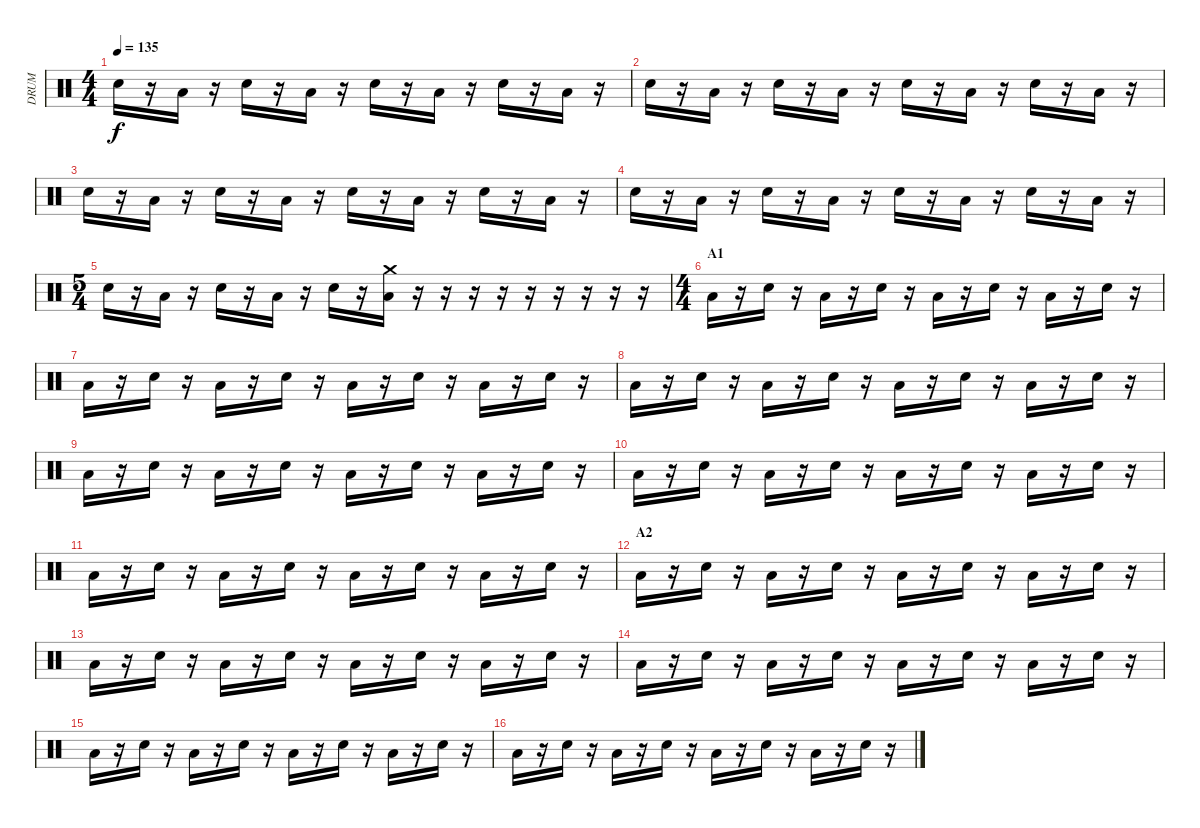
\track ("DRUM" "DRUM") {instrument percussion}
\staff {score}
\articulation defaults
\ts (4 4)
\tempo 135
\clef neutral
\ks c "Electric Snare (hit)".16{dy f}
r.16 "Low Floor Tom (hit)".16 r.16 "Electric Snare (hit)".16 r.16 "Low Floor Tom (hit)".16 r.16 "Electric Snare (hit)".16 r.16 "Low Floor Tom (hit)".16 r.16 "Electric Snare (hit)".16 r.16 "Low Floor Tom (hit)".16 r.16 |
"Electric Snare (hit)".16 r.16 "Low Floor Tom (hit)".16 r.16 "Electric Snare (hit)".16 r.16 "Low Floor Tom (hit)".16 r.16 "Electric Snare (hit)".16 r.16 "Low Floor Tom (hit)".16 r.16 "Electric Snare (hit)".16 r.16 "Low Floor Tom (hit)".16 r.16 |
"Electric Snare (hit)".16 r.16 "Low Floor Tom (hit)".16 r.16 "Electric Snare (hit)".16 r.16 "Low Floor Tom (hit)".16 r.16 "Electric Snare (hit)".16 r.16 "Low Floor Tom (hit)".16 r.16 "Electric Snare (hit)".16 r.16 "Low Floor Tom (hit)".16 r.16 |
"Electric Snare (hit)".16 r.16 "Low Floor Tom (hit)".16 r.16 "Electric Snare (hit)".16 r.16 "Low Floor Tom (hit)".16 r.16 "Electric Snare (hit)".16 r.16 "Low Floor Tom (hit)".16 r.16 "Electric Snare (hit)".16 r.16 "Low Floor Tom (hit)".16 r.16 |
\ts (5 4)
"Electric Snare (hit)".16 r.16 "Low Floor Tom (hit)".16 r.16 "Electric Snare (hit)".16 r.16 "Low Floor Tom (hit)".16 r.16 "Electric Snare (hit)".16 r.16 ("Low Floor Tom (hit)" "Crash medium (hit)").16 r.16 r.16 r.16 r.16 r.16 r.16 r.16 r.16 r.16 |
\ts (4 4)
\section ("" "A1")
"Low Floor Tom (hit)".16 r.16 "Electric Snare (hit)".16 r.16 "Low Floor Tom (hit)".16 r.16 "Electric Snare (hit)".16 r.16 "Low Floor Tom (hit)".16 r.16 "Electric Snare (hit)".16 r.16 "Low Floor Tom (hit)".16 r.16 "Electric Snare (hit)".16 r.16 |
"Low Floor Tom (hit)".16 r.16 "Electric Snare (hit)".16 r.16 "Low Floor Tom (hit)".16 r.16 "Electric Snare (hit)".16 r.16 "Low Floor Tom (hit)".16 r.16 "Electric Snare (hit)".16 r.16 "Low Floor Tom (hit)".16 r.16 "Electric Snare (hit)".16 r.16 |
"Low Floor Tom (hit)".16 r.16 "Electric Snare (hit)".16 r.16 "Low Floor Tom (hit)".16 r.16 "Electric Snare (hit)".16 r.16 "Low Floor Tom (hit)".16 r.16 "Electric Snare (hit)".16 r.16 "Low Floor Tom (hit)".16 r.16 "Electric Snare (hit)".16 r.16 |
"Low Floor Tom (hit)".16 r.16 "Electric Snare (hit)".16 r.16 "Low Floor Tom (hit)".16 r.16 "Electric Snare (hit)".16 r.16 "Low Floor Tom (hit)".16 r.16 "Electric Snare (hit)".16 r.16 "Low Floor Tom (hit)".16 r.16 "Electric Snare (hit)".16 r.16 |
"Low Floor Tom (hit)".16 r.16 "Electric Snare (hit)".16 r.16 "Low Floor Tom (hit)".16 r.16 "Electric Snare (hit)".16 r.16 "Low Floor Tom (hit)".16 r.16 "Electric Snare (hit)".16 r.16 "Low Floor Tom (hit)".16 r.16 "Electric Snare (hit)".16 r.16 |
"Low Floor Tom (hit)".16 r.16 "Electric Snare (hit)".16 r.16 "Low Floor Tom (hit)".16 r.16 "Electric Snare (hit)".16 r.16 "Low Floor Tom (hit)".16 r.16 "Electric Snare (hit)".16 r.16 "Low Floor Tom (hit)".16 r.16 "Electric Snare (hit)".16 r.16 |
\section ("" "A2")
"Low Floor Tom (hit)".16 r.16 "Electric Snare (hit)".16 r.16 "Low Floor Tom (hit)".16 r.16 "Electric Snare (hit)".16 r.16 "Low Floor Tom (hit)".16 r.16 "Electric Snare (hit)".16 r.16 "Low Floor Tom (hit)".16 r.16 "Electric Snare (hit)".16 r.16 |
"Low Floor Tom (hit)".16 r.16 "Electric Snare (hit)".16 r.16 "Low Floor Tom (hit)".16 r.16 "Electric Snare (hit)".16 r.16 "Low Floor Tom (hit)".16 r.16 "Electric Snare (hit)".16 r.16 "Low Floor Tom (hit)".16 r.16 "Electric Snare (hit)".16 r.16 |
"Low Floor Tom (hit)".16 r.16 "Electric Snare (hit)".16 r.16 "Low Floor Tom (hit)".16 r.16 "Electric Snare (hit)".16 r.16 "Low Floor Tom (hit)".16 r.16 "Electric Snare (hit)".16 r.16 "Low Floor Tom (hit)".16 r.16 "Electric Snare (hit)".16 r.16 |
"Low Floor Tom (hit)".16 r.16 "Electric Snare (hit)".16 r.16 "Low Floor Tom (hit)".16 r.16 "Electric Snare (hit)".16 r.16 "Low Floor Tom (hit)".16 r.16 "Electric Snare (hit)".16 r.16 "Low Floor Tom (hit)".16 r.16 "Electric Snare (hit)".16 r.16 |
"Low Floor Tom (hit)".16 r.16 "Electric Snare (hit)".16 r.16 "Low Floor Tom (hit)".16 r.16 "Electric Snare (hit)".16 r.16 "Low Floor Tom (hit)".16 r.16 "Electric Snare (hit)".16 r.16 "Low Floor Tom (hit)".16 r.16 "Electric Snare (hit)".16 r.16
